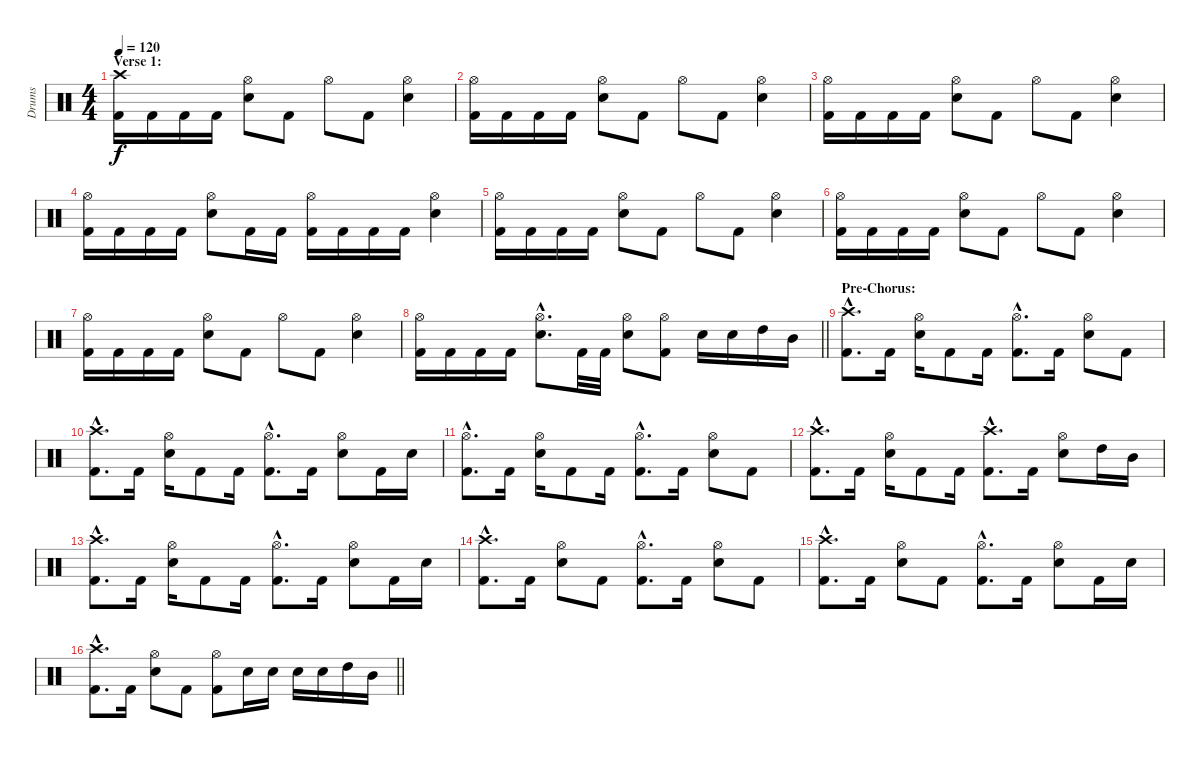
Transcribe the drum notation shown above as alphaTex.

\track ("Drums" "Drums") {instrument percussion}
\staff {score}
\articulation defaults
\ts (4 4)
\section ("" "Verse 1:")
\tempo 120
\clef neutral
\ks c
("Crash high (hit)" "Kick (hit) 2").16{dy f} "Kick (hit) 2".16 "Kick (hit) 2".16 "Kick (hit) 2".16 ("Hi-Hat (open)" "Electric Snare (hit)").8 "Kick (hit) 2".8 "Hi-Hat (open)".8 "Kick (hit) 2".8 ("Hi-Hat (open)" "Electric Snare (hit)").4 |
("Hi-Hat (open)" "Kick (hit) 2").16 "Kick (hit) 2".16 "Kick (hit) 2".16 "Kick (hit) 2".16 ("Hi-Hat (open)" "Electric Snare (hit)").8 "Kick (hit) 2".8 "Hi-Hat (open)".8 "Kick (hit) 2".8 ("Hi-Hat (open)" "Electric Snare (hit)").4 |
("Hi-Hat (open)" "Kick (hit) 2").16 "Kick (hit) 2".16 "Kick (hit) 2".16 "Kick (hit) 2".16 ("Hi-Hat (open)" "Electric Snare (hit)").8 "Kick (hit) 2".8 "Hi-Hat (open)".8 "Kick (hit) 2".8 ("Hi-Hat (open)" "Electric Snare (hit)").4 |
("Hi-Hat (open)" "Kick (hit) 2").16 "Kick (hit) 2".16 "Kick (hit) 2".16 "Kick (hit) 2".16 ("Hi-Hat (open)" "Electric Snare (hit)").8 "Kick (hit) 2".16 "Kick (hit) 2".16 ("Hi-Hat (open)" "Kick (hit) 2").16 "Kick (hit) 2".16 "Kick (hit) 2".16 "Kick (hit) 2".16 ("Hi-Hat (open)" "Electric Snare (hit)").4 |
("Hi-Hat (open)" "Kick (hit) 2").16 "Kick (hit) 2".16 "Kick (hit) 2".16 "Kick (hit) 2".16 ("Hi-Hat (open)" "Electric Snare (hit)").8 "Kick (hit) 2".8 "Hi-Hat (open)".8 "Kick (hit) 2".8 ("Hi-Hat (open)" "Electric Snare (hit)").4 |
("Hi-Hat (open)" "Kick (hit) 2").16 "Kick (hit) 2".16 "Kick (hit) 2".16 "Kick (hit) 2".16 ("Hi-Hat (open)" "Electric Snare (hit)").8 "Kick (hit) 2".8 "Hi-Hat (open)".8 "Kick (hit) 2".8 ("Hi-Hat (open)" "Electric Snare (hit)").4 |
("Hi-Hat (open)" "Kick (hit) 2").16 "Kick (hit) 2".16 "Kick (hit) 2".16 "Kick (hit) 2".16 ("Hi-Hat (open)" "Electric Snare (hit)").8 "Kick (hit) 2".8 "Hi-Hat (open)".8 "Kick (hit) 2".8 ("Hi-Hat (open)" "Electric Snare (hit)").4 |
\barLineRight lightlight
("Hi-Hat (open)" "Kick (hit) 2").16 "Kick (hit) 2".16 "Kick (hit) 2".16 "Kick (hit) 2".16 ("Hi-Hat (open)"{hac} "Electric Snare (hit)"{hac}).8{d} "Kick (hit) 2".32 "Kick (hit) 2".32 ("Hi-Hat (open)" "Electric Snare (hit)").8 ("Hi-Hat (open)" "Kick (hit) 2").8 "Electric Snare (hit)".16 "Electric Snare (hit)".16 "High Tom (hit)".16 "Mid Tom (hit)".16 |
\section ("" "Pre-Chorus:")
("Crash high (hit)"{hac} "Kick (hit) 2"{hac}).8{d} "Kick (hit) 2".16 ("Hi-Hat (open)" "Electric Snare (hit)").16 "Kick (hit) 2".8 "Kick (hit) 2".16 ("Hi-Hat (open)"{hac} "Kick (hit) 2"{hac}).8{d} "Kick (hit) 2".16 ("Hi-Hat (open)" "Electric Snare (hit)").8 "Kick (hit) 2".8 |
("Crash high (hit)"{hac} "Kick (hit) 2"{hac}).8{d} "Kick (hit) 2".16 ("Hi-Hat (open)" "Electric Snare (hit)").16 "Kick (hit) 2".8 "Kick (hit) 2".16 ("Hi-Hat (open)"{hac} "Kick (hit) 2"{hac}).8{d} "Kick (hit) 2".16 ("Hi-Hat (open)" "Electric Snare (hit)").8 "Kick (hit) 2".16 "Electric Snare (hit)".16 |
("Hi-Hat (open)"{hac} "Kick (hit) 2"{hac}).8{d} "Kick (hit) 2".16 ("Hi-Hat (open)" "Electric Snare (hit)").16 "Kick (hit) 2".8 "Kick (hit) 2".16 ("Hi-Hat (open)"{hac} "Kick (hit) 2"{hac}).8{d} "Kick (hit) 2".16 ("Hi-Hat (open)" "Electric Snare (hit)").8 "Kick (hit) 2".8 |
("Crash high (hit)"{hac} "Kick (hit) 2"{hac}).8{d} "Kick (hit) 2".16 ("Hi-Hat (open)" "Electric Snare (hit)").16 "Kick (hit) 2".8 "Kick (hit) 2".16 ("Crash high (hit)"{hac} "Kick (hit) 2"{hac}).8{d} "Kick (hit) 2".16 ("Hi-Hat (open)" "Electric Snare (hit)").8 "High Tom (hit)".16 "Mid Tom (hit)".16 |
("Crash high (hit)"{hac} "Kick (hit) 2"{hac}).8{d} "Kick (hit) 2".16 ("Hi-Hat (open)" "Electric Snare (hit)").16 "Kick (hit) 2".8 "Kick (hit) 2".16 ("Hi-Hat (open)"{hac} "Kick (hit) 2"{hac}).8{d} "Kick (hit) 2".16 ("Hi-Hat (open)" "Electric Snare (hit)").8 "Kick (hit) 2".16 "Electric Snare (hit)".16 |
("Crash high (hit)"{hac} "Kick (hit) 2"{hac}).8{d} "Kick (hit) 2".16 ("Hi-Hat (open)" "Electric Snare (hit)").8 "Kick (hit) 2".8 ("Hi-Hat (open)"{hac} "Kick (hit) 2"{hac}).8{d} "Kick (hit) 2".16 ("Hi-Hat (open)" "Electric Snare (hit)").8 "Kick (hit) 2".8 |
("Crash high (hit)"{hac} "Kick (hit) 2"{hac}).8{d} "Kick (hit) 2".16 ("Hi-Hat (open)" "Electric Snare (hit)").8 "Kick (hit) 2".8 ("Hi-Hat (open)"{hac} "Kick (hit) 2"{hac}).8{d} "Kick (hit) 2".16 ("Hi-Hat (open)" "Electric Snare (hit)").8 "Kick (hit) 2".16 "Electric Snare (hit)".16 |
\barLineRight lightlight
("Crash high (hit)"{hac} "Kick (hit) 2"{hac}).8{d} "Kick (hit) 2".16 ("Hi-Hat (open)" "Electric Snare (hit)").8 "Kick (hit) 2".8 ("Hi-Hat (open)" "Kick (hit) 2").8 "Electric Snare (hit)".16 "Electric Snare (hit)".16 "Electric Snare (hit)".16 "Electric Snare (hit)".16 "High Tom (hit)".16 "Mid Tom (hit)".16
